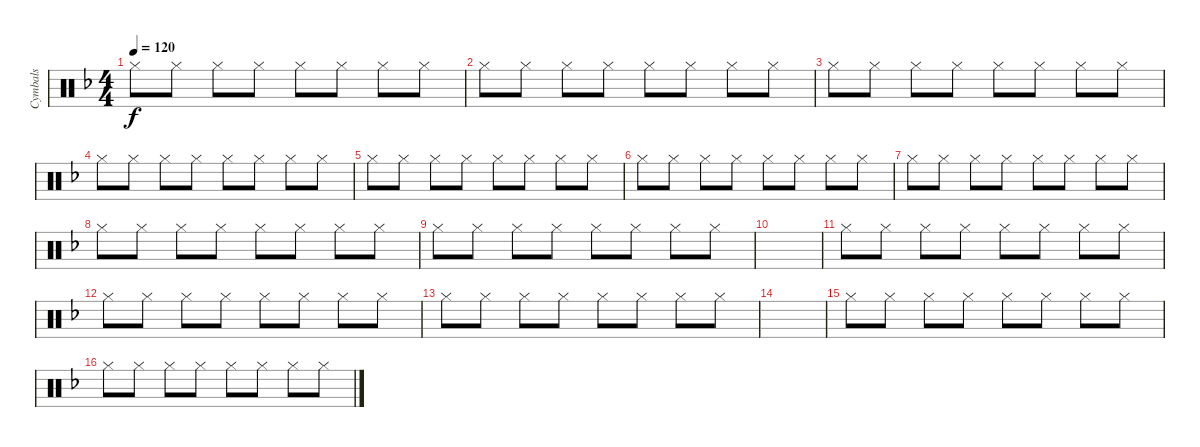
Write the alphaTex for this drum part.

\track ("Cymbals" "Cymbals") {instrument percussion}
\staff {score}
\articulation defaults
\ts (4 4)
\tempo 120
\clef neutral
\ks dminor "Hi-Hat (closed)".8{dy f} "Hi-Hat (closed)".8 "Hi-Hat (closed)".8 "Hi-Hat (closed)".8 "Hi-Hat (closed)".8 "Hi-Hat (closed)".8 "Hi-Hat (closed)".8 "Hi-Hat (closed)".8
|
"Hi-Hat (closed)".8 "Hi-Hat (closed)".8 "Hi-Hat (closed)".8 "Hi-Hat (closed)".8 "Hi-Hat (closed)".8 "Hi-Hat (closed)".8 "Hi-Hat (closed)".8 "Hi-Hat (closed)".8 |
"Hi-Hat (closed)".8 "Hi-Hat (closed)".8 "Hi-Hat (closed)".8 "Hi-Hat (closed)".8 "Hi-Hat (closed)".8 "Hi-Hat (closed)".8 "Hi-Hat (closed)".8 "Hi-Hat (closed)".8 |
"Hi-Hat (closed)".8 "Hi-Hat (closed)".8 "Hi-Hat (closed)".8 "Hi-Hat (closed)".8 "Hi-Hat (closed)".8 "Hi-Hat (closed)".8 "Hi-Hat (closed)".8 "Hi-Hat (closed)".8 |
"Hi-Hat (closed)".8 "Hi-Hat (closed)".8 "Hi-Hat (closed)".8 "Hi-Hat (closed)".8 "Hi-Hat (closed)".8 "Hi-Hat (closed)".8 "Hi-Hat (closed)".8 "Hi-Hat (closed)".8 |
"Hi-Hat (closed)".8 "Hi-Hat (closed)".8 "Hi-Hat (closed)".8 "Hi-Hat (closed)".8 "Hi-Hat (closed)".8 "Hi-Hat (closed)".8 "Hi-Hat (closed)".8 "Hi-Hat (closed)".8 |
"Hi-Hat (closed)".8 "Hi-Hat (closed)".8 "Hi-Hat (closed)".8 "Hi-Hat (closed)".8 "Hi-Hat (closed)".8 "Hi-Hat (closed)".8 "Hi-Hat (closed)".8 "Hi-Hat (closed)".8 |
"Hi-Hat (closed)".8 "Hi-Hat (closed)".8 "Hi-Hat (closed)".8 "Hi-Hat (closed)".8 "Hi-Hat (closed)".8 "Hi-Hat (closed)".8 "Hi-Hat (closed)".8 "Hi-Hat (closed)".8 |
"Hi-Hat (closed)".8 "Hi-Hat (closed)".8 "Hi-Hat (closed)".8 "Hi-Hat (closed)".8 "Hi-Hat (closed)".8 "Hi-Hat (closed)".8 "Hi-Hat (closed)".8 "Hi-Hat (closed)".8 |
|
"Hi-Hat (closed)".8 "Hi-Hat (closed)".8 "Hi-Hat (closed)".8 "Hi-Hat (closed)".8 "Hi-Hat (closed)".8 "Hi-Hat (closed)".8 "Hi-Hat (closed)".8 "Hi-Hat (closed)".8 |
"Hi-Hat (closed)".8 "Hi-Hat (closed)".8 "Hi-Hat (closed)".8 "Hi-Hat (closed)".8 "Hi-Hat (closed)".8 "Hi-Hat (closed)".8 "Hi-Hat (closed)".8 "Hi-Hat (closed)".8 |
"Hi-Hat (closed)".8 "Hi-Hat (closed)".8 "Hi-Hat (closed)".8 "Hi-Hat (closed)".8 "Hi-Hat (closed)".8 "Hi-Hat (closed)".8 "Hi-Hat (closed)".8 "Hi-Hat (closed)".8 |
|
"Hi-Hat (closed)".8 "Hi-Hat (closed)".8 "Hi-Hat (closed)".8 "Hi-Hat (closed)".8 "Hi-Hat (closed)".8 "Hi-Hat (closed)".8 "Hi-Hat (closed)".8 "Hi-Hat (closed)".8 |
"Hi-Hat (closed)".8 "Hi-Hat (closed)".8 "Hi-Hat (closed)".8 "Hi-Hat (closed)".8 "Hi-Hat (closed)".8 "Hi-Hat (closed)".8 "Hi-Hat (closed)".8 "Hi-Hat (closed)".8
